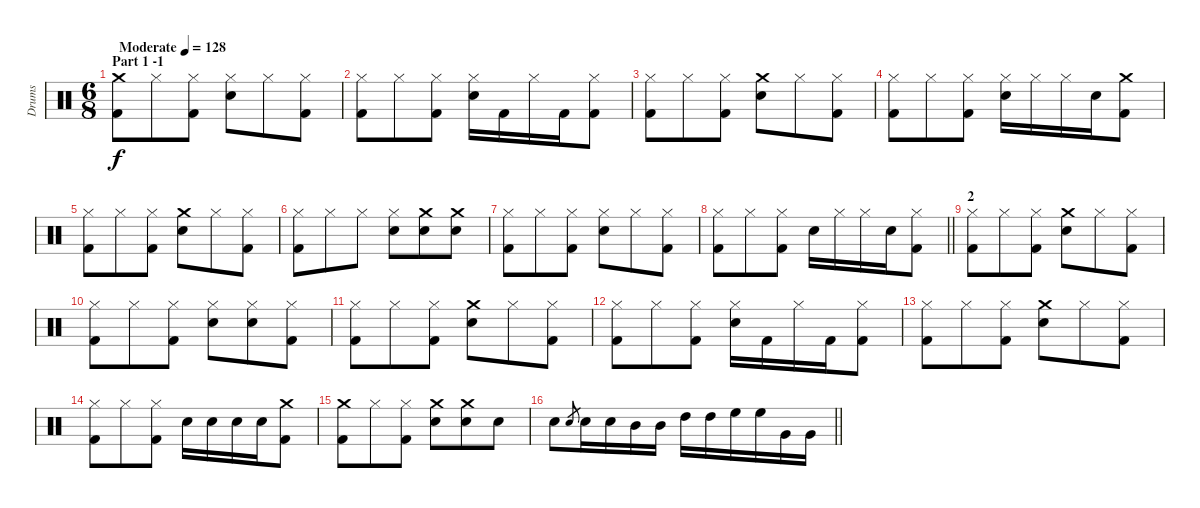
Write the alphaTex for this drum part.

\track ("Drums" "Drums") {instrument percussion}
\staff {score}
\articulation defaults
\ts (6 8)
\section ("" "Part 1 -1")
\tempo (128 "Moderate")
\tempo 90
\tempo (128 "Moderate")
\clef neutral
\ks c
("Kick (hit) 2" "Crash medium (hit)").8{dy f} "Hi-Hat (closed)".8 ("Kick (hit) 2" "Hi-Hat (closed)").8 ("Snare (hit) 2" "Hi-Hat (closed)").8 "Hi-Hat (closed)".8 ("Kick (hit) 2" "Hi-Hat (closed)").8 |
("Hi-Hat (closed)" "Kick (hit) 2").8 "Hi-Hat (closed)".8 ("Kick (hit) 2" "Hi-Hat (closed)").8 ("Hi-Hat (closed)" "Snare (hit) 2").16 "Kick (hit) 2".16 "Hi-Hat (closed)".16 "Kick (hit) 2".16 ("Kick (hit) 2" "Hi-Hat (closed)").8 |
("Hi-Hat (closed)" "Kick (hit) 2").8 "Hi-Hat (closed)".8 ("Hi-Hat (closed)" "Kick (hit) 2").8 ("Crash medium (hit)" "Snare (hit) 2").8 "Hi-Hat (closed)".8 ("Kick (hit) 2" "Hi-Hat (closed)").8 |
("Kick (hit) 2" "Hi-Hat (closed)").8 "Hi-Hat (closed)".8 ("Kick (hit) 2" "Hi-Hat (closed)").8 ("Hi-Hat (closed)" "Snare (hit) 2").16 "Hi-Hat (closed)".16 "Hi-Hat (closed)".16 "Snare (hit) 2".16 ("Crash medium (hit)" "Kick (hit) 2").8 |
("Kick (hit) 2" "Hi-Hat (closed)").8 "Hi-Hat (closed)".8 ("Kick (hit) 2" "Hi-Hat (closed)").8 ("Crash medium (hit)" "Snare (hit) 2").8 "Hi-Hat (closed)".8 ("Hi-Hat (closed)" "Kick (hit) 2").8 |
("Hi-Hat (closed)" "Kick (hit) 2").8 "Hi-Hat (closed)".8 "Hi-Hat (closed)".8 ("Snare (hit) 2" "Hi-Hat (closed)").8 ("Crash medium (hit)" "Snare (hit) 2").8 ("Crash medium (hit)" "Snare (hit) 2").8 |
("Kick (hit) 2" "Hi-Hat (closed)").8 "Hi-Hat (closed)".8 ("Kick (hit) 2" "Hi-Hat (closed)").8 ("Snare (hit) 2" "Hi-Hat (closed)").8 "Hi-Hat (closed)".8 ("Kick (hit) 2" "Hi-Hat (closed)").8 |
\barLineRight lightlight
("Hi-Hat (closed)" "Kick (hit) 2").8 "Hi-Hat (closed)".8 ("Kick (hit) 2" "Hi-Hat (closed)").8 "Snare (hit) 2".16 "Hi-Hat (closed)".16 "Hi-Hat (closed)".16 "Snare (hit) 2".16 ("Hi-Hat (closed)" "Kick (hit) 2").8 |
\section ("" "2")
("Hi-Hat (closed)" "Kick (hit) 2").8 "Hi-Hat (closed)".8 ("Kick (hit) 2" "Hi-Hat (closed)").8 ("Crash medium (hit)" "Snare (hit) 2").8 "Hi-Hat (closed)".8 ("Kick (hit) 2" "Hi-Hat (closed)").8 |
("Hi-Hat (closed)" "Kick (hit) 2").8 "Hi-Hat (closed)".8 ("Kick (hit) 2" "Hi-Hat (closed)").8 ("Hi-Hat (closed)" "Snare (hit) 2").8 ("Hi-Hat (closed)" "Snare (hit) 2").8 ("Kick (hit) 2" "Hi-Hat (closed)").8 |
("Hi-Hat (closed)" "Kick (hit) 2").8 "Hi-Hat (closed)".8 ("Kick (hit) 2" "Hi-Hat (closed)").8 ("Crash medium (hit)" "Snare (hit) 2").8 "Hi-Hat (closed)".8 ("Kick (hit) 2" "Hi-Hat (closed)").8 |
("Hi-Hat (closed)" "Kick (hit) 2").8 "Hi-Hat (closed)".8 ("Kick (hit) 2" "Hi-Hat (closed)").8 ("Snare (hit) 2" "Hi-Hat (closed)").16 "Kick (hit) 2".16 "Hi-Hat (closed)".16 "Kick (hit) 2".16 ("Kick (hit) 2" "Hi-Hat (closed)").8 |
("Kick (hit) 2" "Hi-Hat (closed)").8 "Hi-Hat (closed)".8 ("Kick (hit) 2" "Hi-Hat (closed)").8 ("Crash medium (hit)" "Snare (hit) 2").8 "Hi-Hat (closed)".8 ("Hi-Hat (closed)" "Kick (hit) 2").8 |
("Kick (hit) 2" "Hi-Hat (closed)").8 "Hi-Hat (closed)".8 ("Kick (hit) 2" "Hi-Hat (closed)").8 "Snare (hit) 2".16 "Snare (hit) 2".16 "Snare (hit) 2".16 "Snare (hit) 2".16 ("Crash medium (hit)" "Kick (hit) 2").8 |
("Kick (hit) 2" "Crash medium (hit)").8 "Hi-Hat (closed)".8 ("Kick (hit) 2" "Hi-Hat (closed)").8 ("Crash medium (hit)" "Snare (hit) 2").8 ("Crash medium (hit)" "Snare (hit) 2").8 "Snare (hit) 2".8 |
\barLineRight lightlight "Snare (hit) 2".8 "Snare (hit) 2".8{gr} "Snare (hit) 2".16 "Snare (hit) 2".16 "Mid Tom (hit)".16 "Mid Tom (hit)".16 "High Tom (hit)".16 "High Tom (hit)".16 "High Floor Tom (hit)".16 "High Floor Tom (hit)".16 "Very Low Tom (hit)".16 "Very Low Tom (hit)".16
